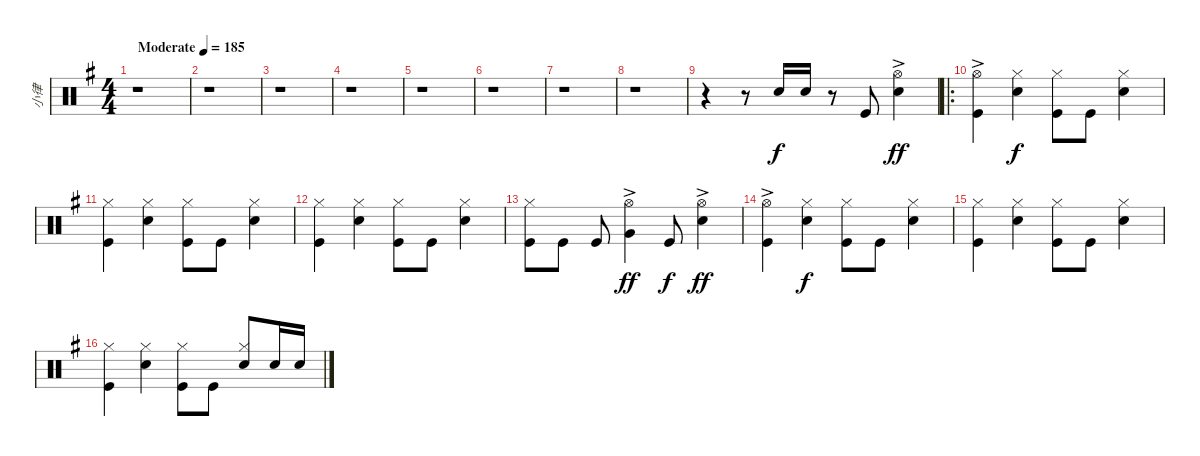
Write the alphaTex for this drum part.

\track ("小律" "小律") {instrument percussion}
\staff {score}
\articulation defaults
\ts (4 4)
\tempo (185 "Moderate")
\clef neutral
\ks g
r.1{dy f} |
r.1 |
r.1 |
r.1 |
r.1 |
r.1 |
r.1 |
r.1 |
r.4 r.8 "Snare (hit) 2".16{beam Up} "Snare (hit) 2".16{beam Up} r.8{beam Up} "Kick (hit)".8 ("Hi-Hat (open)" "Snare (hit) 2"{ac}).4{dy ff} |
\ro
("Hi-Hat (open)" "Kick (hit)"{ac}).4 ("Hi-Hat (closed)" "Snare (hit) 2").4{dy f} ("Hi-Hat (closed)" "Kick (hit)").8 "Kick (hit)".8 ("Hi-Hat (closed)" "Snare (hit) 2").4 |
("Hi-Hat (closed)" "Kick (hit)").4 ("Hi-Hat (closed)" "Snare (hit) 2").4 ("Hi-Hat (closed)" "Kick (hit)").8 "Kick (hit)".8 ("Hi-Hat (closed)" "Snare (hit) 2").4 |
("Hi-Hat (closed)" "Kick (hit)").4 ("Hi-Hat (closed)" "Snare (hit) 2").4 ("Hi-Hat (closed)" "Kick (hit)").8 "Kick (hit)".8 ("Hi-Hat (closed)" "Snare (hit) 2").4 |
("Hi-Hat (closed)" "Kick (hit)").8 "Kick (hit)".8 "Kick (hit)".8 ("Hi-Hat (open)"{ac} "Very Low Tom (hit)").4{dy ff} "Kick (hit)".8{dy f} ("Hi-Hat (open)"{ac} "Snare (hit) 2").4{dy ff} |
("Hi-Hat (open)" "Kick (hit)"{ac}).4 ("Hi-Hat (closed)" "Snare (hit) 2").4{dy f} ("Hi-Hat (closed)" "Kick (hit)").8 "Kick (hit)".8 ("Hi-Hat (closed)" "Snare (hit) 2").4 |
("Hi-Hat (closed)" "Kick (hit)").4 ("Hi-Hat (closed)" "Snare (hit) 2").4 ("Hi-Hat (closed)" "Kick (hit)").8 "Kick (hit)".8 ("Hi-Hat (closed)" "Snare (hit) 2").4 |
("Hi-Hat (closed)" "Kick (hit)").4 ("Hi-Hat (closed)" "Snare (hit) 2").4 ("Hi-Hat (closed)" "Kick (hit)").8 "Kick (hit)".8 ("Hi-Hat (closed)" "Snare (hit) 2").8{beam Up} "Snare (hit) 2".16{beam Up} "Snare (hit) 2".16{beam Up}
